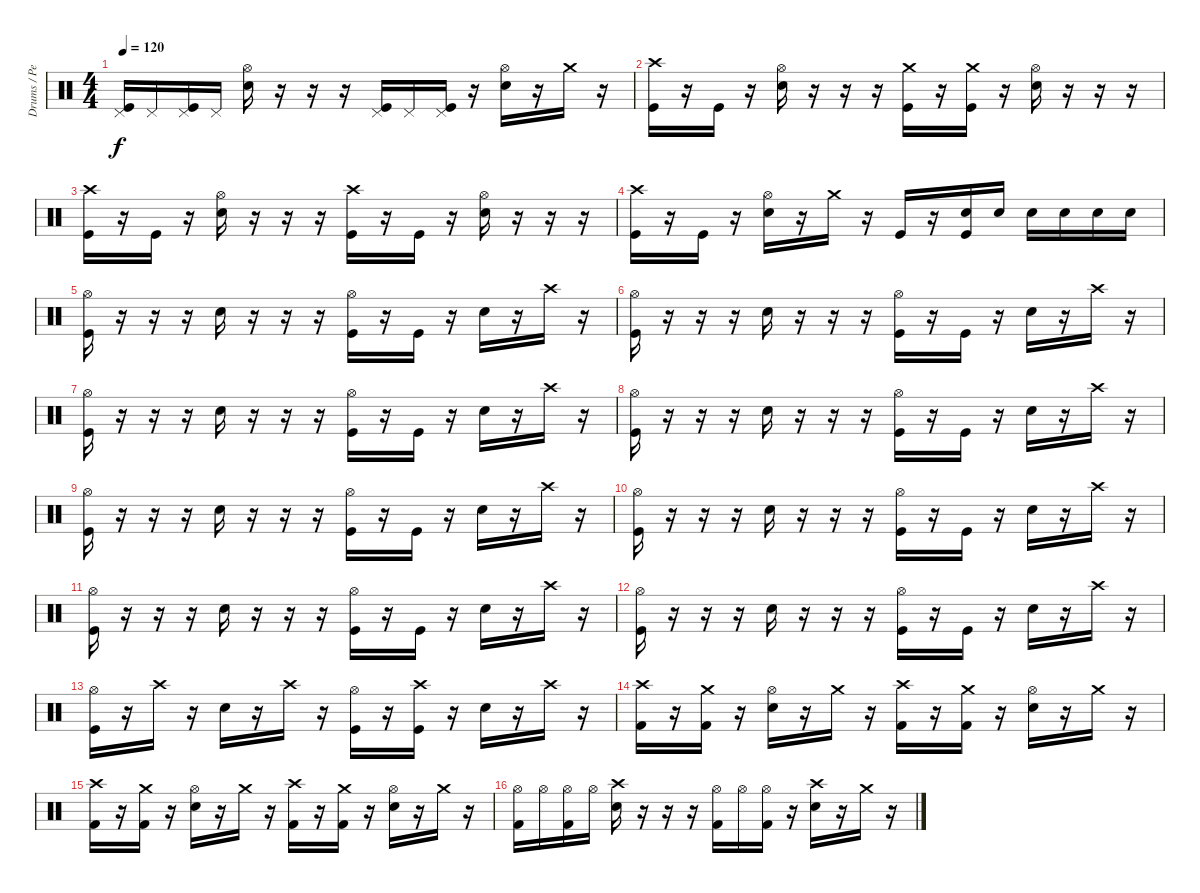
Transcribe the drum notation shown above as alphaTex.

\track ("Drums / Percussion" "Drums / Pe") {instrument percussion}
\staff {score}
\articulation defaults
\ts (4 4)
\tempo 120
\clef neutral
\ks c
("Pedal Hi-Hat (hit)" "Kick (hit)").16{dy f} "Pedal Hi-Hat (hit)".16 ("Pedal Hi-Hat (hit)" "Kick (hit)").16 "Pedal Hi-Hat (hit)".16 ("Hi-Hat (open)" "Snare (hit) 2").16 r.16 r.16 r.16 ("Pedal Hi-Hat (hit)" "Kick (hit)").16 "Pedal Hi-Hat (hit)".16 ("Pedal Hi-Hat (hit)" "Kick (hit)").16 r.16 ("Hi-Hat (open)" "Snare (hit) 2").16 r.16 "Crash medium (hit)".16 r.16 |
("Crash high (hit)" "Kick (hit)").16 r.16 "Kick (hit)".16 r.16 ("Hi-Hat (open)" "Snare (hit) 2").16 r.16 r.16 r.16 ("Crash medium (hit)" "Kick (hit)").16 r.16 ("Crash medium (hit)" "Kick (hit)").16 r.16 ("Hi-Hat (open)" "Snare (hit) 2").16 r.16 r.16 r.16 |
("Crash high (hit)" "Kick (hit)").16 r.16 "Kick (hit)".16 r.16 ("Hi-Hat (open)" "Snare (hit) 2").16 r.16 r.16 r.16 ("Crash high (hit)" "Kick (hit)").16 r.16 "Kick (hit)".16 r.16 ("Hi-Hat (open)" "Snare (hit) 2").16 r.16 r.16 r.16 |
("Crash high (hit)" "Kick (hit)").16 r.16 "Kick (hit)".16 r.16 ("Hi-Hat (open)" "Snare (hit) 2").16 r.16 "Crash medium (hit)".16 r.16 "Kick (hit)".16 r.16 ("Snare (hit) 2" "Kick (hit)").16 "Snare (hit) 2".16 "Snare (hit) 2".16 "Snare (hit) 2".16 "Snare (hit) 2".16 "Snare (hit) 2".16 |
("Hi-Hat (open)" "Kick (hit)").16 r.16 r.16 r.16 "Snare (hit) 2".16 r.16 r.16 r.16 ("Hi-Hat (open)" "Kick (hit)").16 r.16 "Kick (hit)".16 r.16 "Snare (hit) 2".16 r.16 "Crash high (hit)".16 r.16 |
("Hi-Hat (open)" "Kick (hit)").16 r.16 r.16 r.16 "Snare (hit) 2".16 r.16 r.16 r.16 ("Hi-Hat (open)" "Kick (hit)").16 r.16 "Kick (hit)".16 r.16 "Snare (hit) 2".16 r.16 "Crash high (hit)".16 r.16 |
("Hi-Hat (open)" "Kick (hit)").16 r.16 r.16 r.16 "Snare (hit) 2".16 r.16 r.16 r.16 ("Hi-Hat (open)" "Kick (hit)").16 r.16 "Kick (hit)".16 r.16 "Snare (hit) 2".16 r.16 "Crash high (hit)".16 r.16 |
("Hi-Hat (open)" "Kick (hit)").16 r.16 r.16 r.16 "Snare (hit) 2".16 r.16 r.16 r.16 ("Hi-Hat (open)" "Kick (hit)").16 r.16 "Kick (hit)".16 r.16 "Snare (hit) 2".16 r.16 "Crash high (hit)".16 r.16 |
("Hi-Hat (open)" "Kick (hit)").16 r.16 r.16 r.16 "Snare (hit) 2".16 r.16 r.16 r.16 ("Hi-Hat (open)" "Kick (hit)").16 r.16 "Kick (hit)".16 r.16 "Snare (hit) 2".16 r.16 "Crash high (hit)".16 r.16 |
("Hi-Hat (open)" "Kick (hit)").16 r.16 r.16 r.16 "Snare (hit) 2".16 r.16 r.16 r.16 ("Hi-Hat (open)" "Kick (hit)").16 r.16 "Kick (hit)".16 r.16 "Snare (hit) 2".16 r.16 "Crash high (hit)".16 r.16 |
("Hi-Hat (open)" "Kick (hit)").16 r.16 r.16 r.16 "Snare (hit) 2".16 r.16 r.16 r.16 ("Hi-Hat (open)" "Kick (hit)").16 r.16 "Kick (hit)".16 r.16 "Snare (hit) 2".16 r.16 "Crash high (hit)".16 r.16 |
("Hi-Hat (open)" "Kick (hit)").16 r.16 r.16 r.16 "Snare (hit) 2".16 r.16 r.16 r.16 ("Hi-Hat (open)" "Kick (hit)").16 r.16 "Kick (hit)".16 r.16 "Snare (hit) 2".16 r.16 "Crash high (hit)".16 r.16 |
("Hi-Hat (open)" "Kick (hit)").16 r.16 "Crash high (hit)".16 r.16 "Snare (hit) 2".16 r.16 "Crash high (hit)".16 r.16 ("Hi-Hat (open)" "Kick (hit)").16 r.16 ("Crash high (hit)" "Kick (hit)").16 r.16 "Snare (hit) 2".16 r.16 "Crash high (hit)".16 r.16 |
("Crash high (hit)" "Kick (hit) 2").16 r.16 ("Crash medium (hit)" "Kick (hit) 2").16 r.16 ("Hi-Hat (open)" "Snare (hit) 2").16 r.16 "Crash medium (hit)".16 r.16 ("Crash high (hit)" "Kick (hit) 2").16 r.16 ("Crash medium (hit)" "Kick (hit) 2").16 r.16 ("Hi-Hat (open)" "Snare (hit) 2").16 r.16 "Crash medium (hit)".16 r.16 |
("Crash high (hit)" "Kick (hit) 2").16 r.16 ("Crash medium (hit)" "Kick (hit) 2").16 r.16 ("Hi-Hat (open)" "Snare (hit) 2").16 r.16 "Crash medium (hit)".16 r.16 ("Crash high (hit)" "Kick (hit) 2").16 r.16 ("Crash medium (hit)" "Kick (hit) 2").16 r.16 ("Hi-Hat (open)" "Snare (hit) 2").16 r.16 "Crash medium (hit)".16 r.16 |
("Hi-Hat (open)" "Kick (hit) 2").16 "Hi-Hat (open)".16 ("Hi-Hat (open)" "Kick (hit) 2").16 "Hi-Hat (open)".16 ("Crash high (hit)" "Snare (hit) 2").16 r.16 r.16 r.16 ("Hi-Hat (open)" "Kick (hit) 2").16 "Hi-Hat (open)".16 ("Hi-Hat (open)" "Kick (hit) 2").16 r.16 ("Crash high (hit)" "Snare (hit) 2").16 r.16 "Crash medium (hit)".16 r.16
